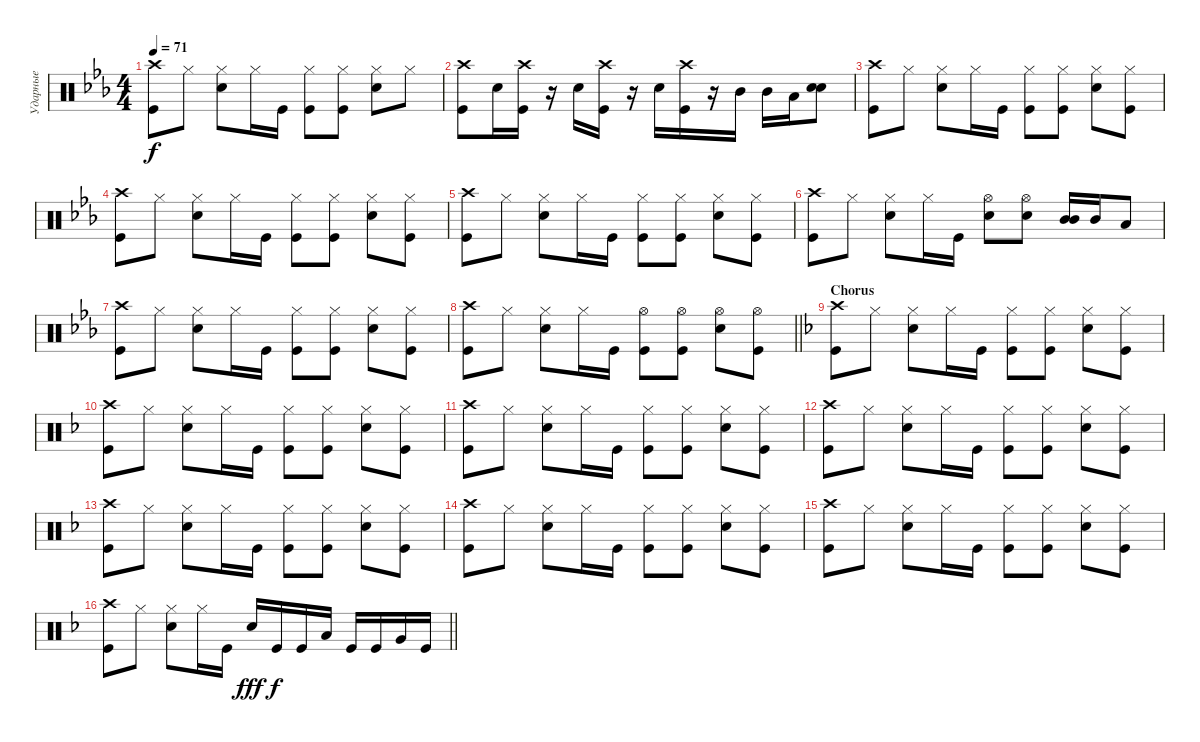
\track ("Ударные" "Ударные") {instrument percussion}
\staff {score}
\articulation defaults
\ts (4 4)
\tempo 71
\clef neutral
\ks cminor
("Kick (hit)" "Crash high (hit)").8{dy f} "Hi-Hat (closed)".8 ("Snare (hit) 2" "Hi-Hat (closed)").8 "Hi-Hat (closed)".16 "Kick (hit)".16 ("Hi-Hat (closed)" "Kick (hit)").8 ("Hi-Hat (closed)" "Kick (hit)").8 ("Hi-Hat (closed)" "Snare (hit) 2").8 "Hi-Hat (closed)".8 |
("Kick (hit)" "Crash high (hit)").8 "Snare (hit) 2".16 ("Kick (hit)" "Crash high (hit)").16 r.16 "Snare (hit) 2".16 ("Kick (hit)" "Crash high (hit)").16 r.16 "Snare (hit) 2".16 ("Kick (hit)" "Crash high (hit)").16 r.16 "Mid Tom (hit)".16 "Mid Tom (hit)".16 "Low Tom (hit)".16 ("Snare (hit) 2" "Snare (hit) 2").8{bd 120} |
("Kick (hit)" "Crash high (hit)").8 "Hi-Hat (closed)".8 ("Snare (hit) 2" "Hi-Hat (closed)").8 "Hi-Hat (closed)".16 "Kick (hit)".16 ("Hi-Hat (closed)" "Kick (hit)").8 ("Hi-Hat (closed)" "Kick (hit)").8 ("Hi-Hat (closed)" "Snare (hit) 2").8 ("Hi-Hat (closed)" "Kick (hit)").8 |
("Kick (hit)" "Crash high (hit)").8 "Hi-Hat (closed)".8 ("Snare (hit) 2" "Hi-Hat (closed)").8 "Hi-Hat (closed)".16 "Kick (hit)".16 ("Hi-Hat (closed)" "Kick (hit)").8 ("Hi-Hat (closed)" "Kick (hit)").8 ("Hi-Hat (closed)" "Snare (hit) 2").8 ("Hi-Hat (closed)" "Kick (hit)").8 |
("Kick (hit)" "Crash high (hit)").8 "Hi-Hat (closed)".8 ("Snare (hit) 2" "Hi-Hat (closed)").8 "Hi-Hat (closed)".16 "Kick (hit)".16 ("Hi-Hat (closed)" "Kick (hit)").8 ("Hi-Hat (closed)" "Kick (hit)").8 ("Hi-Hat (closed)" "Snare (hit) 2").8 ("Hi-Hat (closed)" "Kick (hit)").8 |
("Kick (hit)" "Crash high (hit)").8 "Hi-Hat (closed)".8 ("Snare (hit) 2" "Hi-Hat (closed)").8 "Hi-Hat (closed)".16 "Kick (hit)".16 ("Snare (hit) 2" "Hi-Hat (open)").8 ("Snare (hit) 2" "Hi-Hat (open)").8 ("Mid Tom (hit)" "Mid Tom (hit)").16{bd 120} "Mid Tom (hit)".16 "Low Tom (hit)".8 |
("Kick (hit)" "Crash high (hit)").8 "Hi-Hat (closed)".8 ("Snare (hit) 2" "Hi-Hat (closed)").8 "Hi-Hat (closed)".16 "Kick (hit)".16 ("Hi-Hat (closed)" "Kick (hit)").8 ("Hi-Hat (closed)" "Kick (hit)").8 ("Hi-Hat (closed)" "Snare (hit) 2").8 ("Hi-Hat (closed)" "Kick (hit)").8 |
\barLineRight lightlight
("Kick (hit)" "Crash high (hit)").8 "Hi-Hat (closed)".8 ("Snare (hit) 2" "Hi-Hat (closed)").8 "Hi-Hat (closed)".16 "Kick (hit)".16 ("Hi-Hat (open)" "Kick (hit)").8 ("Hi-Hat (open)" "Kick (hit)").8 ("Hi-Hat (open)" "Snare (hit) 2").8 ("Kick (hit)" "Hi-Hat (open)").8 |
\section ("" "Chorus")
\ks dminor
("Kick (hit)" "Crash high (hit)").8 "Hi-Hat (closed)".8 ("Snare (hit) 2" "Hi-Hat (closed)").8 "Hi-Hat (closed)".16 "Kick (hit)".16 ("Hi-Hat (closed)" "Kick (hit)").8 ("Hi-Hat (closed)" "Kick (hit)").8 ("Hi-Hat (closed)" "Snare (hit) 2").8 ("Hi-Hat (closed)" "Kick (hit)").8 |
("Kick (hit)" "Crash high (hit)").8 "Hi-Hat (closed)".8 ("Snare (hit) 2" "Hi-Hat (closed)").8 "Hi-Hat (closed)".16 "Kick (hit)".16 ("Hi-Hat (closed)" "Kick (hit)").8 ("Hi-Hat (closed)" "Kick (hit)").8 ("Hi-Hat (closed)" "Snare (hit) 2").8 ("Hi-Hat (closed)" "Kick (hit)").8 |
("Kick (hit)" "Crash high (hit)").8 "Hi-Hat (closed)".8 ("Snare (hit) 2" "Hi-Hat (closed)").8 "Hi-Hat (closed)".16 "Kick (hit)".16 ("Hi-Hat (closed)" "Kick (hit)").8 ("Hi-Hat (closed)" "Kick (hit)").8 ("Hi-Hat (closed)" "Snare (hit) 2").8 ("Hi-Hat (closed)" "Kick (hit)").8 |
("Kick (hit)" "Crash high (hit)").8 "Hi-Hat (closed)".8 ("Snare (hit) 2" "Hi-Hat (closed)").8 "Hi-Hat (closed)".16 "Kick (hit)".16 ("Hi-Hat (closed)" "Kick (hit)").8 ("Hi-Hat (closed)" "Kick (hit)").8 ("Hi-Hat (closed)" "Snare (hit) 2").8 ("Hi-Hat (closed)" "Kick (hit)").8 |
("Kick (hit)" "Crash high (hit)").8 "Hi-Hat (closed)".8 ("Snare (hit) 2" "Hi-Hat (closed)").8 "Hi-Hat (closed)".16 "Kick (hit)".16 ("Hi-Hat (closed)" "Kick (hit)").8 ("Hi-Hat (closed)" "Kick (hit)").8 ("Hi-Hat (closed)" "Snare (hit) 2").8 ("Hi-Hat (closed)" "Kick (hit)").8 |
("Kick (hit)" "Crash high (hit)").8 "Hi-Hat (closed)".8 ("Snare (hit) 2" "Hi-Hat (closed)").8 "Hi-Hat (closed)".16 "Kick (hit)".16 ("Hi-Hat (closed)" "Kick (hit)").8 ("Hi-Hat (closed)" "Kick (hit)").8 ("Hi-Hat (closed)" "Snare (hit) 2").8 ("Hi-Hat (closed)" "Kick (hit)").8 |
("Kick (hit)" "Crash high (hit)").8 "Hi-Hat (closed)".8 ("Snare (hit) 2" "Hi-Hat (closed)").8 "Hi-Hat (closed)".16 "Kick (hit)".16 ("Hi-Hat (closed)" "Kick (hit)").8 ("Hi-Hat (closed)" "Kick (hit)").8 ("Hi-Hat (closed)" "Snare (hit) 2").8 ("Hi-Hat (closed)" "Kick (hit)").8 |
\barLineRight lightlight
("Kick (hit)" "Crash high (hit)").8 "Hi-Hat (closed)".8 ("Snare (hit) 2" "Hi-Hat (closed)").8 "Hi-Hat (closed)".16 "Kick (hit)".16 "Snare (hit) 2".16{dy fff} "Kick (hit)".16{dy f} "Kick (hit)".16 "Low Tom (hit)".16 "Kick (hit)".16 "Kick (hit)".16 "Very Low Tom (hit)".16 "Kick (hit)".16
